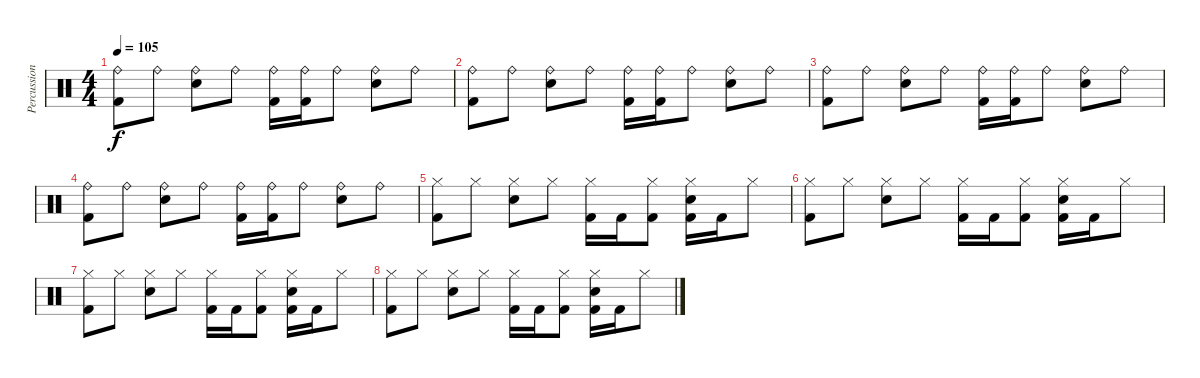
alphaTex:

\track ("Percussions" "Percussion") {instrument percussion}
\staff {score}
\articulation defaults
\ts (4 4)
\tempo 105
\clef neutral
\ks c
("Ride (bell)" "Kick (hit) 2").8{dy f} "Ride (bell)".8 ("Ride (bell)" "Electric Snare (hit)").8 "Ride (bell)".8 ("Ride (bell)" "Kick (hit) 2").16 ("Ride (bell)" "Kick (hit) 2").16 "Ride (bell)".8 ("Ride (bell)" "Electric Snare (hit)").8 "Ride (bell)".8 |
("Ride (bell)" "Kick (hit) 2").8 "Ride (bell)".8 ("Ride (bell)" "Electric Snare (hit)").8 "Ride (bell)".8 ("Ride (bell)" "Kick (hit) 2").16 ("Ride (bell)" "Kick (hit) 2").16 "Ride (bell)".8 ("Ride (bell)" "Electric Snare (hit)").8 "Ride (bell)".8 |
("Ride (bell)" "Kick (hit) 2").8 "Ride (bell)".8 ("Ride (bell)" "Electric Snare (hit)").8 "Ride (bell)".8 ("Ride (bell)" "Kick (hit) 2").16 ("Ride (bell)" "Kick (hit) 2").16 "Ride (bell)".8 ("Ride (bell)" "Electric Snare (hit)").8 "Ride (bell)".8 |
("Ride (bell)" "Kick (hit) 2").8 "Ride (bell)".8 ("Ride (bell)" "Electric Snare (hit)").8 "Ride (bell)".8 ("Ride (bell)" "Kick (hit) 2").16 ("Ride (bell)" "Kick (hit) 2").16 "Ride (bell)".8 ("Ride (bell)" "Electric Snare (hit)").8 "Ride (bell)".8 |
("Hi-Hat (closed)" "Kick (hit) 2").8 "Hi-Hat (closed)".8 ("Hi-Hat (closed)" "Electric Snare (hit)").8 "Hi-Hat (closed)".8 ("Hi-Hat (closed)" "Kick (hit) 2").16 "Kick (hit) 2".16 ("Hi-Hat (closed)" "Kick (hit) 2").8 ("Hi-Hat (closed)" "Electric Snare (hit)" "Kick (hit) 2").16 "Kick (hit) 2".16 "Hi-Hat (closed)".8 |
("Hi-Hat (closed)" "Kick (hit) 2").8 "Hi-Hat (closed)".8 ("Hi-Hat (closed)" "Electric Snare (hit)").8 "Hi-Hat (closed)".8 ("Hi-Hat (closed)" "Kick (hit) 2").16 "Kick (hit) 2".16 ("Hi-Hat (closed)" "Kick (hit) 2").8 ("Hi-Hat (closed)" "Electric Snare (hit)" "Kick (hit) 2").16 "Kick (hit) 2".16 "Hi-Hat (closed)".8 |
("Hi-Hat (closed)" "Kick (hit) 2").8 "Hi-Hat (closed)".8 ("Hi-Hat (closed)" "Electric Snare (hit)").8 "Hi-Hat (closed)".8 ("Hi-Hat (closed)" "Kick (hit) 2").16 "Kick (hit) 2".16 ("Hi-Hat (closed)" "Kick (hit) 2").8 ("Hi-Hat (closed)" "Electric Snare (hit)" "Kick (hit) 2").16 "Kick (hit) 2".16 "Hi-Hat (closed)".8 |
("Hi-Hat (closed)" "Kick (hit) 2").8 "Hi-Hat (closed)".8 ("Hi-Hat (closed)" "Electric Snare (hit)").8 "Hi-Hat (closed)".8 ("Hi-Hat (closed)" "Kick (hit) 2").16 "Kick (hit) 2".16 ("Hi-Hat (closed)" "Kick (hit) 2").8 ("Hi-Hat (closed)" "Electric Snare (hit)" "Kick (hit) 2").16 "Kick (hit) 2".16 "Hi-Hat (closed)".8
